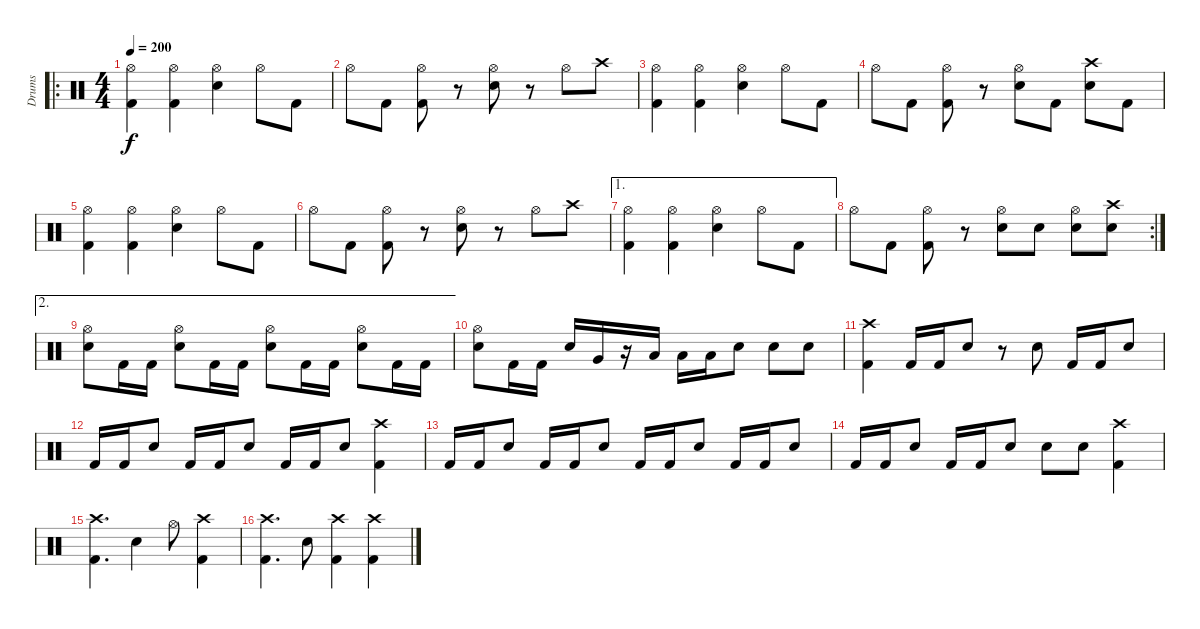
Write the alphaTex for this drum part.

\track ("Drums" "Drums") {instrument percussion}
\staff {score}
\articulation defaults
\ro
\ts (4 4)
\tempo 200
\clef neutral
\ks c
("Hi-Hat (open)" "Kick (hit) 2").4{dy f} ("Hi-Hat (open)" "Kick (hit) 2").4 ("Hi-Hat (open)" "Snare (hit) 2").4 "Hi-Hat (open)".8 "Kick (hit) 2".8 |
"Hi-Hat (open)".8 "Kick (hit) 2".8 ("Hi-Hat (open)" "Kick (hit) 2").8 r.8 ("Hi-Hat (open)" "Snare (hit) 2").8 r.8 "Hi-Hat (open)".8 "Crash high (hit)".8 |
("Hi-Hat (open)" "Kick (hit) 2").4 ("Hi-Hat (open)" "Kick (hit) 2").4 ("Hi-Hat (open)" "Snare (hit) 2").4 "Hi-Hat (open)".8 "Kick (hit) 2".8 |
"Hi-Hat (open)".8 "Kick (hit) 2".8 ("Hi-Hat (open)" "Kick (hit) 2").8 r.8 ("Hi-Hat (open)" "Snare (hit) 2").8 "Kick (hit) 2".8 ("Crash high (hit)" "Snare (hit) 2").8 "Kick (hit) 2".8 |
("Hi-Hat (open)" "Kick (hit) 2").4 ("Hi-Hat (open)" "Kick (hit) 2").4 ("Hi-Hat (open)" "Snare (hit) 2").4 "Hi-Hat (open)".8 "Kick (hit) 2".8 |
"Hi-Hat (open)".8 "Kick (hit) 2".8 ("Hi-Hat (open)" "Kick (hit) 2").8 r.8 ("Hi-Hat (open)" "Snare (hit) 2").8 r.8 "Hi-Hat (open)".8 "Crash high (hit)".8 |
\ae 1
("Hi-Hat (open)" "Kick (hit) 2").4 ("Hi-Hat (open)" "Kick (hit) 2").4 ("Hi-Hat (open)" "Snare (hit) 2").4 "Hi-Hat (open)".8 "Kick (hit) 2".8 |
\rc 2 "Hi-Hat (open)".8 "Kick (hit) 2".8
("Hi-Hat (open)" "Kick (hit) 2").8 r.8 ("Hi-Hat (open)" "Snare (hit) 2").8 "Snare (hit) 2".8 ("Hi-Hat (open)" "Snare (hit) 2").8 ("Crash high (hit)" "Snare (hit) 2").8 |
\ae 2
("Hi-Hat (open)" "Snare (hit) 2").8 "Kick (hit) 2".16 "Kick (hit) 2".16 ("Hi-Hat (open)" "Snare (hit) 2").8 "Kick (hit) 2".16 "Kick (hit) 2".16 ("Hi-Hat (open)" "Snare (hit) 2").8 "Kick (hit) 2".16 "Kick (hit) 2".16 ("Hi-Hat (open)" "Snare (hit) 2").8 "Kick (hit) 2".16 "Kick (hit) 2".16 |
("Hi-Hat (open)" "Snare (hit) 2").8 "Kick (hit) 2".16 "Kick (hit) 2".16 "Snare (hit) 2".16 "Very Low Tom (hit)".16 r.16 "Low Tom (hit)".16 "Low Tom (hit)".16 "Low Tom (hit)".16 "Snare (hit) 2".8 "Snare (hit) 2".8 "Snare (hit) 2".8 |
("Crash high (hit)" "Kick (hit) 2").4 "Kick (hit) 2".16 "Kick (hit) 2".16 "Snare (hit) 2".8 r.8 "Snare (hit) 2".8 "Kick (hit) 2".16 "Kick (hit) 2".16 "Snare (hit) 2".8 |
"Kick (hit) 2".16 "Kick (hit) 2".16 "Snare (hit) 2".8 "Kick (hit) 2".16 "Kick (hit) 2".16 "Snare (hit) 2".8 "Kick (hit) 2".16 "Kick (hit) 2".16 "Snare (hit) 2".8 ("Crash high (hit)" "Kick (hit) 2").4 |
"Kick (hit) 2".16 "Kick (hit) 2".16 "Snare (hit) 2".8 "Kick (hit) 2".16 "Kick (hit) 2".16 "Snare (hit) 2".8 "Kick (hit) 2".16 "Kick (hit) 2".16 "Snare (hit) 2".8 "Kick (hit) 2".16 "Kick (hit) 2".16 "Snare (hit) 2".8 |
"Kick (hit) 2".16 "Kick (hit) 2".16 "Snare (hit) 2".8 "Kick (hit) 2".16 "Kick (hit) 2".16 "Snare (hit) 2".8 "Snare (hit) 2".8 "Snare (hit) 2".8 ("Crash high (hit)" "Kick (hit) 2").4 |
("Crash high (hit)" "Kick (hit) 2").4{d} "Snare (hit) 2".4 "Hi-Hat (open)".8 ("Crash high (hit)" "Kick (hit) 2").4 |
("Crash high (hit)" "Kick (hit) 2").4{d} "Snare (hit) 2".8 ("Crash high (hit)" "Kick (hit) 2").4 ("Crash high (hit)" "Kick (hit) 2").4
